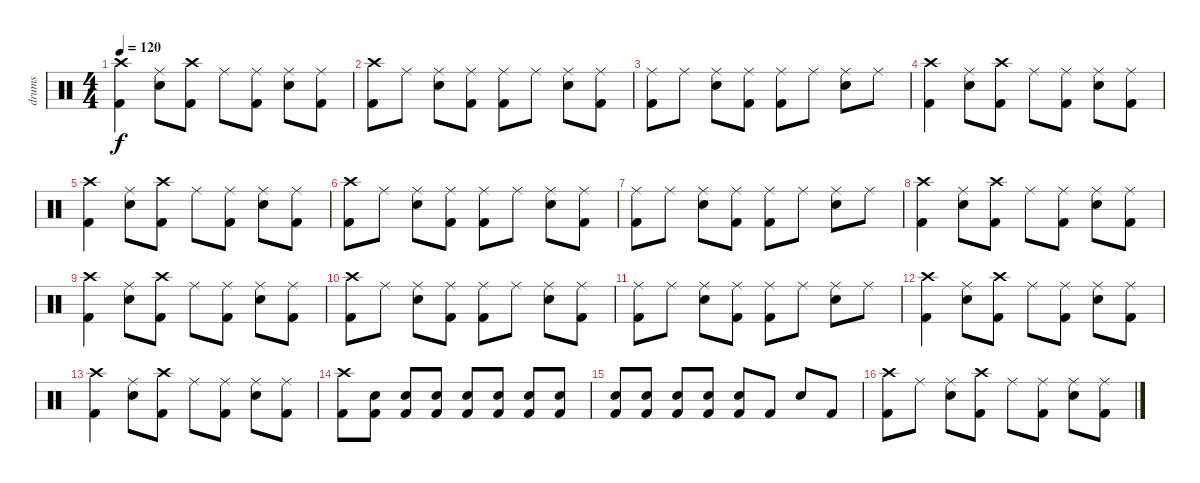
\track ("drums" "drums") {instrument percussion}
\staff {score}
\articulation defaults
\ts (4 4)
\tempo 120
\clef neutral
\ks c
("Crash high (hit)" "Kick (hit) 2").4{dy f} ("Ride (middle)" "Snare (hit) 2").8 ("Crash high (hit)" "Kick (hit) 2").8 "Ride (middle)".8 ("Ride (middle)" "Kick (hit) 2").8 ("Ride (middle)" "Snare (hit) 2").8 ("Ride (middle)" "Kick (hit) 2").8 |
("Crash high (hit)" "Kick (hit) 2").8 "Ride (middle)".8 ("Ride (middle)" "Snare (hit) 2").8 ("Ride (middle)" "Kick (hit) 2").8 ("Ride (middle)" "Kick (hit) 2").8 "Ride (middle)".8 ("Ride (middle)" "Snare (hit) 2").8 ("Ride (middle)" "Kick (hit) 2").8 |
("Ride (middle)" "Kick (hit) 2").8 "Ride (middle)".8 ("Ride (middle)" "Snare (hit) 2").8 ("Ride (middle)" "Kick (hit) 2").8 ("Ride (middle)" "Kick (hit) 2").8 "Ride (middle)".8 ("Ride (middle)" "Snare (hit) 2").8 "Ride (middle)".8 |
("Crash high (hit)" "Kick (hit) 2").4 ("Ride (middle)" "Snare (hit) 2").8 ("Crash high (hit)" "Kick (hit) 2").8 "Ride (middle)".8 ("Ride (middle)" "Kick (hit) 2").8 ("Ride (middle)" "Snare (hit) 2").8 ("Ride (middle)" "Kick (hit) 2").8 |
("Crash high (hit)" "Kick (hit) 2").4 ("Ride (middle)" "Snare (hit) 2").8 ("Crash high (hit)" "Kick (hit) 2").8 "Ride (middle)".8 ("Ride (middle)" "Kick (hit) 2").8 ("Ride (middle)" "Snare (hit) 2").8 ("Ride (middle)" "Kick (hit) 2").8 |
("Crash high (hit)" "Kick (hit) 2").8 "Ride (middle)".8 ("Ride (middle)" "Snare (hit) 2").8 ("Ride (middle)" "Kick (hit) 2").8 ("Ride (middle)" "Kick (hit) 2").8 "Ride (middle)".8 ("Ride (middle)" "Snare (hit) 2").8 ("Ride (middle)" "Kick (hit) 2").8 |
("Ride (middle)" "Kick (hit) 2").8 "Ride (middle)".8 ("Ride (middle)" "Snare (hit) 2").8 ("Ride (middle)" "Kick (hit) 2").8 ("Ride (middle)" "Kick (hit) 2").8 "Ride (middle)".8 ("Ride (middle)" "Snare (hit) 2").8 "Ride (middle)".8 |
("Crash high (hit)" "Kick (hit) 2").4 ("Ride (middle)" "Snare (hit) 2").8 ("Crash high (hit)" "Kick (hit) 2").8 "Ride (middle)".8 ("Ride (middle)" "Kick (hit) 2").8 ("Ride (middle)" "Snare (hit) 2").8 ("Ride (middle)" "Kick (hit) 2").8 |
("Crash high (hit)" "Kick (hit) 2").4 ("Ride (middle)" "Snare (hit) 2").8 ("Crash high (hit)" "Kick (hit) 2").8 "Ride (middle)".8 ("Ride (middle)" "Kick (hit) 2").8 ("Ride (middle)" "Snare (hit) 2").8 ("Ride (middle)" "Kick (hit) 2").8 |
("Crash high (hit)" "Kick (hit) 2").8 "Ride (middle)".8 ("Ride (middle)" "Snare (hit) 2").8 ("Ride (middle)" "Kick (hit) 2").8 ("Ride (middle)" "Kick (hit) 2").8 "Ride (middle)".8 ("Ride (middle)" "Snare (hit) 2").8 ("Ride (middle)" "Kick (hit) 2").8 |
("Ride (middle)" "Kick (hit) 2").8 "Ride (middle)".8 ("Ride (middle)" "Snare (hit) 2").8 ("Ride (middle)" "Kick (hit) 2").8 ("Ride (middle)" "Kick (hit) 2").8 "Ride (middle)".8 ("Ride (middle)" "Snare (hit) 2").8 "Ride (middle)".8 |
("Crash high (hit)" "Kick (hit) 2").4 ("Ride (middle)" "Snare (hit) 2").8 ("Crash high (hit)" "Kick (hit) 2").8 "Ride (middle)".8 ("Ride (middle)" "Kick (hit) 2").8 ("Ride (middle)" "Snare (hit) 2").8 ("Ride (middle)" "Kick (hit) 2").8 |
("Crash high (hit)" "Kick (hit) 2").4 ("Ride (middle)" "Snare (hit) 2").8 ("Crash high (hit)" "Kick (hit) 2").8 "Ride (middle)".8 ("Ride (middle)" "Kick (hit) 2").8 ("Ride (middle)" "Snare (hit) 2").8 ("Ride (middle)" "Kick (hit) 2").8 |
("Crash high (hit)" "Kick (hit) 2").8 ("Snare (hit) 2" "Kick (hit) 2").8 ("Snare (hit) 2" "Kick (hit) 2").8 ("Snare (hit) 2" "Kick (hit) 2").8 ("Snare (hit) 2" "Kick (hit) 2").8 ("Snare (hit) 2" "Kick (hit) 2").8 ("Snare (hit) 2" "Kick (hit) 2").8 ("Snare (hit) 2" "Kick (hit) 2").8 |
("Snare (hit) 2" "Kick (hit) 2").8 ("Snare (hit) 2" "Kick (hit) 2").8 ("Snare (hit) 2" "Kick (hit) 2").8 ("Snare (hit) 2" "Kick (hit) 2").8 ("Snare (hit) 2" "Kick (hit) 2").8 "Kick (hit) 2".8 "Snare (hit) 2".8 "Kick (hit) 2".8 |
("Crash high (hit)" "Kick (hit) 2").8 "Ride (middle)".8 ("Ride (middle)" "Snare (hit) 2").8 ("Crash high (hit)" "Kick (hit) 2").8 "Ride (middle)".8 ("Ride (middle)" "Kick (hit) 2").8 ("Ride (middle)" "Snare (hit) 2").8 ("Ride (middle)" "Kick (hit) 2").8
